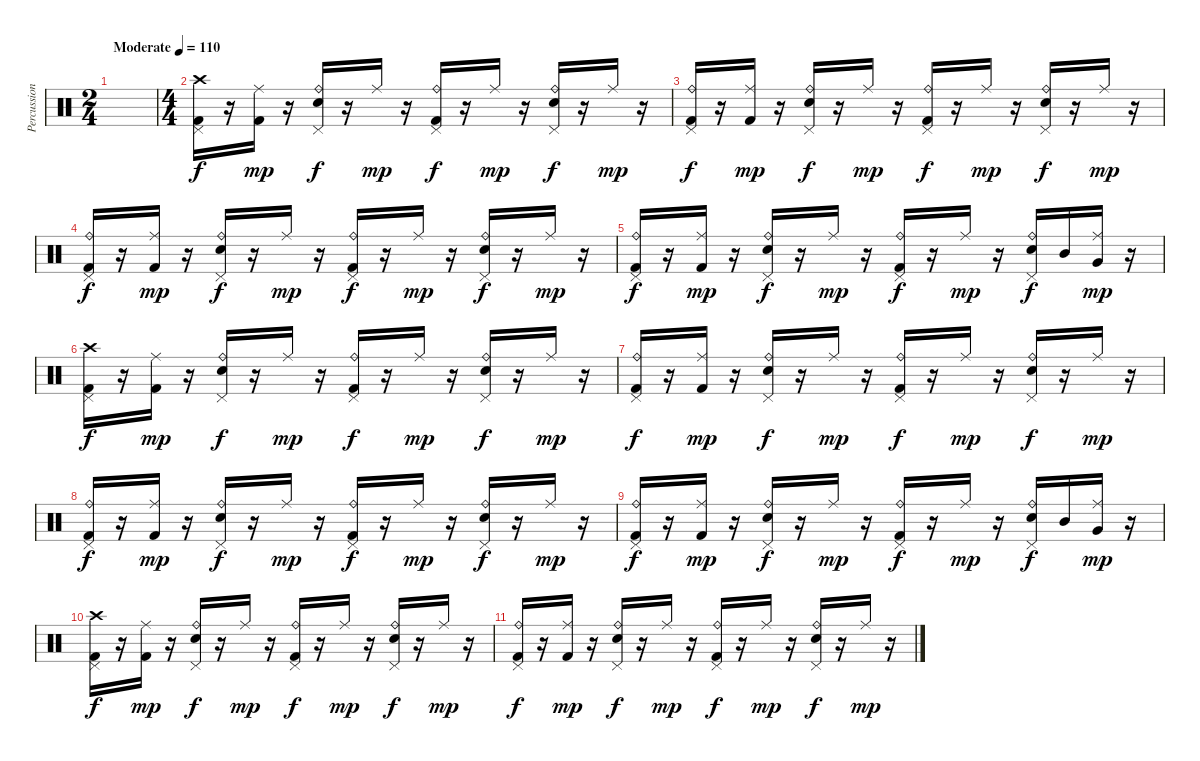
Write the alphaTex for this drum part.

\track ("Percussion" "Percussion") {instrument percussion}
\staff {score}
\articulation defaults
\ts (2 4)
\tempo (110 "Moderate")
\clef neutral
\ks c
|
\ts (4 4)
("Crash high (hit)" "Pedal Hi-Hat (hit)" "Kick (hit) 2").16 r.16 ("Ride (middle)" "Kick (hit) 2").16{dy mp} r.16 ("Ride (bell)" "Electric Snare (hit)" "Pedal Hi-Hat (hit)").16{dy f} r.16 "Ride (middle)".16{dy mp} r.16 ("Ride (bell)" "Pedal Hi-Hat (hit)" "Kick (hit) 2").16{dy f} r.16 "Ride (middle)".16{dy mp} r.16 ("Ride (bell)" "Electric Snare (hit)" "Pedal Hi-Hat (hit)").16{dy f} r.16 "Ride (middle)".16{dy mp} r.16 |
("Ride (bell)" "Pedal Hi-Hat (hit)" "Kick (hit) 2").16{dy f} r.16 ("Ride (middle)" "Kick (hit) 2").16{dy mp} r.16 ("Ride (bell)" "Electric Snare (hit)" "Pedal Hi-Hat (hit)").16{dy f} r.16 "Ride (middle)".16{dy mp} r.16 ("Ride (bell)" "Pedal Hi-Hat (hit)" "Kick (hit) 2").16{dy f} r.16 "Ride (middle)".16{dy mp} r.16 ("Ride (bell)" "Electric Snare (hit)" "Pedal Hi-Hat (hit)").16{dy f} r.16 "Ride (middle)".16{dy mp} r.16 |
("Ride (bell)" "Pedal Hi-Hat (hit)" "Kick (hit) 2").16{dy f} r.16 ("Ride (middle)" "Kick (hit) 2").16{dy mp} r.16 ("Ride (bell)" "Electric Snare (hit)" "Pedal Hi-Hat (hit)").16{dy f} r.16 "Ride (middle)".16{dy mp} r.16 ("Ride (bell)" "Pedal Hi-Hat (hit)" "Kick (hit) 2").16{dy f} r.16 "Ride (middle)".16{dy mp} r.16 ("Ride (bell)" "Electric Snare (hit)" "Pedal Hi-Hat (hit)").16{dy f} r.16 "Ride (middle)".16{dy mp} r.16 |
("Ride (bell)" "Pedal Hi-Hat (hit)" "Kick (hit) 2").16{dy f} r.16 ("Ride (middle)" "Kick (hit) 2").16{dy mp} r.16 ("Ride (bell)" "Electric Snare (hit)" "Pedal Hi-Hat (hit)").16{dy f} r.16 "Ride (middle)".16{dy mp} r.16 ("Ride (bell)" "Pedal Hi-Hat (hit)" "Kick (hit) 2").16{dy f} r.16 "Ride (middle)".16{dy mp} r.16 ("Ride (bell)" "Electric Snare (hit)" "Pedal Hi-Hat (hit)").16{dy f} "Mid Tom (hit)".16 ("Ride (middle)" "Very Low Tom (hit)").16{dy mp} r.16 |
("Crash high (hit)" "Pedal Hi-Hat (hit)" "Kick (hit) 2").16{dy f} r.16 ("Ride (middle)" "Kick (hit) 2").16{dy mp} r.16 ("Ride (bell)" "Electric Snare (hit)" "Pedal Hi-Hat (hit)").16{dy f} r.16 "Ride (middle)".16{dy mp} r.16 ("Ride (bell)" "Pedal Hi-Hat (hit)" "Kick (hit) 2").16{dy f} r.16 "Ride (middle)".16{dy mp} r.16 ("Ride (bell)" "Electric Snare (hit)" "Pedal Hi-Hat (hit)").16{dy f} r.16 "Ride (middle)".16{dy mp} r.16 |
("Ride (bell)" "Pedal Hi-Hat (hit)" "Kick (hit) 2").16{dy f} r.16 ("Ride (middle)" "Kick (hit) 2").16{dy mp} r.16 ("Ride (bell)" "Electric Snare (hit)" "Pedal Hi-Hat (hit)").16{dy f} r.16 "Ride (middle)".16{dy mp} r.16 ("Ride (bell)" "Pedal Hi-Hat (hit)" "Kick (hit) 2").16{dy f} r.16 "Ride (middle)".16{dy mp} r.16 ("Ride (bell)" "Electric Snare (hit)" "Pedal Hi-Hat (hit)").16{dy f} r.16 "Ride (middle)".16{dy mp} r.16 |
("Ride (bell)" "Pedal Hi-Hat (hit)" "Kick (hit) 2").16{dy f} r.16 ("Ride (middle)" "Kick (hit) 2").16{dy mp} r.16 ("Ride (bell)" "Electric Snare (hit)" "Pedal Hi-Hat (hit)").16{dy f} r.16 "Ride (middle)".16{dy mp} r.16 ("Ride (bell)" "Pedal Hi-Hat (hit)" "Kick (hit) 2").16{dy f} r.16 "Ride (middle)".16{dy mp} r.16 ("Ride (bell)" "Electric Snare (hit)" "Pedal Hi-Hat (hit)").16{dy f} r.16 "Ride (middle)".16{dy mp} r.16 |
("Ride (bell)" "Pedal Hi-Hat (hit)" "Kick (hit) 2").16{dy f} r.16 ("Ride (middle)" "Kick (hit) 2").16{dy mp} r.16 ("Ride (bell)" "Electric Snare (hit)" "Pedal Hi-Hat (hit)").16{dy f} r.16 "Ride (middle)".16{dy mp} r.16 ("Ride (bell)" "Pedal Hi-Hat (hit)" "Kick (hit) 2").16{dy f} r.16 "Ride (middle)".16{dy mp} r.16 ("Ride (bell)" "Electric Snare (hit)" "Pedal Hi-Hat (hit)").16{dy f} "Mid Tom (hit)".16 ("Ride (middle)" "Very Low Tom (hit)").16{dy mp} r.16 |
("Crash high (hit)" "Pedal Hi-Hat (hit)" "Kick (hit) 2").16{dy f} r.16 ("Ride (middle)" "Kick (hit) 2").16{dy mp} r.16 ("Ride (bell)" "Electric Snare (hit)" "Pedal Hi-Hat (hit)").16{dy f} r.16 "Ride (middle)".16{dy mp} r.16 ("Ride (bell)" "Pedal Hi-Hat (hit)" "Kick (hit) 2").16{dy f} r.16 "Ride (middle)".16{dy mp} r.16 ("Ride (bell)" "Electric Snare (hit)" "Pedal Hi-Hat (hit)").16{dy f} r.16 "Ride (middle)".16{dy mp} r.16 |
("Ride (bell)" "Pedal Hi-Hat (hit)" "Kick (hit) 2").16{dy f} r.16 ("Ride (middle)" "Kick (hit) 2").16{dy mp} r.16 ("Ride (bell)" "Electric Snare (hit)" "Pedal Hi-Hat (hit)").16{dy f} r.16 "Ride (middle)".16{dy mp} r.16 ("Ride (bell)" "Pedal Hi-Hat (hit)" "Kick (hit) 2").16{dy f} r.16 "Ride (middle)".16{dy mp} r.16 ("Ride (bell)" "Electric Snare (hit)" "Pedal Hi-Hat (hit)").16{dy f} r.16 "Ride (middle)".16{dy mp} r.16
